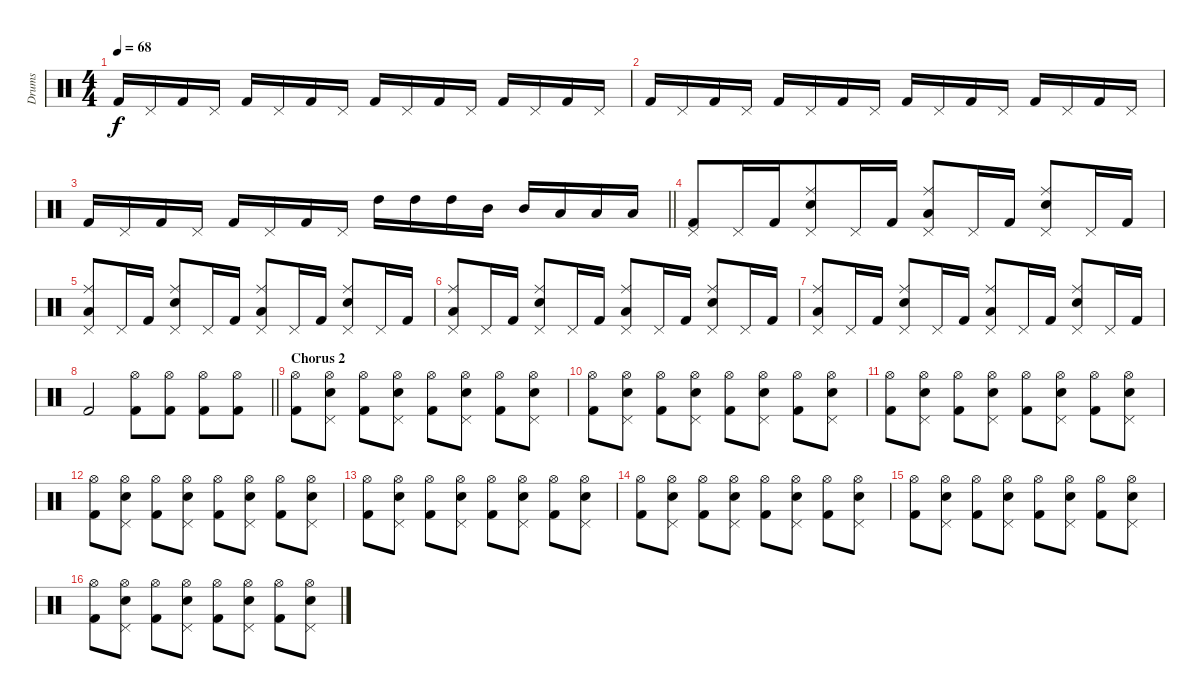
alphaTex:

\track ("Drums" "Drums") {instrument percussion}
\staff {score}
\articulation defaults
\ts (4 4)
\tempo 68
\clef neutral
\ks c "Kick (hit) 2".16{dy f} "Pedal Hi-Hat (hit)".16 "Kick (hit) 2".16 "Pedal Hi-Hat (hit)".16 "Kick (hit) 2".16 "Pedal Hi-Hat (hit)".16 "Kick (hit) 2".16 "Pedal Hi-Hat (hit)".16 "Kick (hit) 2".16 "Pedal Hi-Hat (hit)".16 "Kick (hit) 2".16 "Pedal Hi-Hat (hit)".16 "Kick (hit) 2".16 "Pedal Hi-Hat (hit)".16 "Kick (hit) 2".16 "Pedal Hi-Hat (hit)".16
|
"Kick (hit) 2".16 "Pedal Hi-Hat (hit)".16 "Kick (hit) 2".16 "Pedal Hi-Hat (hit)".16 "Kick (hit) 2".16 "Pedal Hi-Hat (hit)".16 "Kick (hit) 2".16 "Pedal Hi-Hat (hit)".16 "Kick (hit) 2".16 "Pedal Hi-Hat (hit)".16 "Kick (hit) 2".16 "Pedal Hi-Hat (hit)".16 "Kick (hit) 2".16 "Pedal Hi-Hat (hit)".16 "Kick (hit) 2".16 "Pedal Hi-Hat (hit)".16 |
\barLineRight lightlight "Kick (hit) 2".16 "Pedal Hi-Hat (hit)".16 "Kick (hit) 2".16 "Pedal Hi-Hat (hit)".16 "Kick (hit) 2".16 "Pedal Hi-Hat (hit)".16 "Kick (hit) 2".16 "Pedal Hi-Hat (hit)".16 "High Tom (hit)".16 "High Tom (hit)".16 "High Tom (hit)".16 "Mid Tom (hit)".16 "Mid Tom (hit)".16 "Low Tom (hit)".16 "Low Tom (hit)".16 "Low Tom (hit)".16
|
("Kick (hit) 2" "Pedal Hi-Hat (hit)").8 "Pedal Hi-Hat (hit)".16{beam merge} "Kick (hit) 2".16{beam merge} ("Electric Snare (hit)" "Ride (middle)" "Pedal Hi-Hat (hit)").8 "Pedal Hi-Hat (hit)".16 "Kick (hit) 2".16 ("Low Tom (hit)" "Ride (middle)" "Pedal Hi-Hat (hit)").8 "Pedal Hi-Hat (hit)".16 "Kick (hit) 2".16 ("Electric Snare (hit)" "Ride (middle)" "Pedal Hi-Hat (hit)").8 "Pedal Hi-Hat (hit)".16{beam merge} "Kick (hit) 2".16 |
("Low Tom (hit)" "Ride (middle)" "Pedal Hi-Hat (hit)").8 "Pedal Hi-Hat (hit)".16 "Kick (hit) 2".16 ("Electric Snare (hit)" "Ride (middle)" "Pedal Hi-Hat (hit)").8 "Pedal Hi-Hat (hit)".16{beam merge} "Kick (hit) 2".16 ("Low Tom (hit)" "Ride (middle)" "Pedal Hi-Hat (hit)").8 "Pedal Hi-Hat (hit)".16 "Kick (hit) 2".16 ("Electric Snare (hit)" "Ride (middle)" "Pedal Hi-Hat (hit)").8 "Pedal Hi-Hat (hit)".16{beam merge} "Kick (hit) 2".16 |
("Low Tom (hit)" "Ride (middle)" "Pedal Hi-Hat (hit)").8 "Pedal Hi-Hat (hit)".16 "Kick (hit) 2".16 ("Electric Snare (hit)" "Ride (middle)" "Pedal Hi-Hat (hit)").8 "Pedal Hi-Hat (hit)".16{beam merge} "Kick (hit) 2".16 ("Low Tom (hit)" "Ride (middle)" "Pedal Hi-Hat (hit)").8 "Pedal Hi-Hat (hit)".16 "Kick (hit) 2".16 ("Electric Snare (hit)" "Ride (middle)" "Pedal Hi-Hat (hit)").8 "Pedal Hi-Hat (hit)".16{beam merge} "Kick (hit) 2".16 |
("Low Tom (hit)" "Ride (middle)" "Pedal Hi-Hat (hit)").8 "Pedal Hi-Hat (hit)".16 "Kick (hit) 2".16 ("Electric Snare (hit)" "Ride (middle)" "Pedal Hi-Hat (hit)").8 "Pedal Hi-Hat (hit)".16{beam merge} "Kick (hit) 2".16 ("Low Tom (hit)" "Ride (middle)" "Pedal Hi-Hat (hit)").8 "Pedal Hi-Hat (hit)".16 "Kick (hit) 2".16 ("Electric Snare (hit)" "Ride (middle)" "Pedal Hi-Hat (hit)").8 "Pedal Hi-Hat (hit)".16{beam merge} "Kick (hit) 2".16 |
\barLineRight lightlight "Kick (hit) 2".2
("Kick (hit) 2" "Hi-Hat (open)").8 ("Kick (hit) 2" "Hi-Hat (open)").8 ("Kick (hit) 2" "Hi-Hat (open)").8 ("Kick (hit) 2" "Hi-Hat (open)").8 |
\section ("" "Chorus 2")
("Kick (hit) 2" "Hi-Hat (open)").8 ("Snare (hit) 2" "Pedal Hi-Hat (hit)" "Hi-Hat (open)").8 ("Kick (hit) 2" "Hi-Hat (open)").8 ("Snare (hit) 2" "Pedal Hi-Hat (hit)" "Hi-Hat (open)").8 ("Kick (hit) 2" "Hi-Hat (open)").8 ("Snare (hit) 2" "Pedal Hi-Hat (hit)" "Hi-Hat (open)").8 ("Kick (hit) 2" "Hi-Hat (open)").8 ("Snare (hit) 2" "Pedal Hi-Hat (hit)" "Hi-Hat (open)").8 |
("Kick (hit) 2" "Hi-Hat (open)").8 ("Snare (hit) 2" "Pedal Hi-Hat (hit)" "Hi-Hat (open)").8 ("Kick (hit) 2" "Hi-Hat (open)").8 ("Snare (hit) 2" "Pedal Hi-Hat (hit)" "Hi-Hat (open)").8 ("Kick (hit) 2" "Hi-Hat (open)").8 ("Snare (hit) 2" "Pedal Hi-Hat (hit)" "Hi-Hat (open)").8 ("Kick (hit) 2" "Hi-Hat (open)").8 ("Snare (hit) 2" "Pedal Hi-Hat (hit)" "Hi-Hat (open)").8 |
("Kick (hit) 2" "Hi-Hat (open)").8 ("Snare (hit) 2" "Pedal Hi-Hat (hit)" "Hi-Hat (open)").8 ("Kick (hit) 2" "Hi-Hat (open)").8 ("Snare (hit) 2" "Pedal Hi-Hat (hit)" "Hi-Hat (open)").8 ("Kick (hit) 2" "Hi-Hat (open)").8 ("Snare (hit) 2" "Pedal Hi-Hat (hit)" "Hi-Hat (open)").8 ("Kick (hit) 2" "Hi-Hat (open)").8 ("Snare (hit) 2" "Pedal Hi-Hat (hit)" "Hi-Hat (open)").8 |
("Kick (hit) 2" "Hi-Hat (open)").8 ("Snare (hit) 2" "Pedal Hi-Hat (hit)" "Hi-Hat (open)").8 ("Kick (hit) 2" "Hi-Hat (open)").8 ("Snare (hit) 2" "Pedal Hi-Hat (hit)" "Hi-Hat (open)").8 ("Kick (hit) 2" "Hi-Hat (open)").8 ("Snare (hit) 2" "Pedal Hi-Hat (hit)" "Hi-Hat (open)").8 ("Kick (hit) 2" "Hi-Hat (open)").8 ("Snare (hit) 2" "Pedal Hi-Hat (hit)" "Hi-Hat (open)").8 |
("Kick (hit) 2" "Hi-Hat (open)").8 ("Snare (hit) 2" "Pedal Hi-Hat (hit)" "Hi-Hat (open)").8 ("Kick (hit) 2" "Hi-Hat (open)").8 ("Snare (hit) 2" "Pedal Hi-Hat (hit)" "Hi-Hat (open)").8 ("Kick (hit) 2" "Hi-Hat (open)").8 ("Snare (hit) 2" "Pedal Hi-Hat (hit)" "Hi-Hat (open)").8 ("Kick (hit) 2" "Hi-Hat (open)").8 ("Snare (hit) 2" "Pedal Hi-Hat (hit)" "Hi-Hat (open)").8 |
("Kick (hit) 2" "Hi-Hat (open)").8 ("Snare (hit) 2" "Pedal Hi-Hat (hit)" "Hi-Hat (open)").8 ("Kick (hit) 2" "Hi-Hat (open)").8 ("Snare (hit) 2" "Pedal Hi-Hat (hit)" "Hi-Hat (open)").8 ("Kick (hit) 2" "Hi-Hat (open)").8 ("Snare (hit) 2" "Pedal Hi-Hat (hit)" "Hi-Hat (open)").8 ("Kick (hit) 2" "Hi-Hat (open)").8 ("Snare (hit) 2" "Pedal Hi-Hat (hit)" "Hi-Hat (open)").8 |
("Kick (hit) 2" "Hi-Hat (open)").8 ("Snare (hit) 2" "Pedal Hi-Hat (hit)" "Hi-Hat (open)").8 ("Kick (hit) 2" "Hi-Hat (open)").8 ("Snare (hit) 2" "Pedal Hi-Hat (hit)" "Hi-Hat (open)").8 ("Kick (hit) 2" "Hi-Hat (open)").8 ("Snare (hit) 2" "Pedal Hi-Hat (hit)" "Hi-Hat (open)").8 ("Kick (hit) 2" "Hi-Hat (open)").8 ("Snare (hit) 2" "Pedal Hi-Hat (hit)" "Hi-Hat (open)").8 |
("Kick (hit) 2" "Hi-Hat (open)").8 ("Snare (hit) 2" "Pedal Hi-Hat (hit)" "Hi-Hat (open)").8 ("Kick (hit) 2" "Hi-Hat (open)").8 ("Snare (hit) 2" "Pedal Hi-Hat (hit)" "Hi-Hat (open)").8 ("Kick (hit) 2" "Hi-Hat (open)").8 ("Snare (hit) 2" "Pedal Hi-Hat (hit)" "Hi-Hat (open)").8 ("Kick (hit) 2" "Hi-Hat (open)").8 ("Snare (hit) 2" "Pedal Hi-Hat (hit)" "Hi-Hat (open)").8
